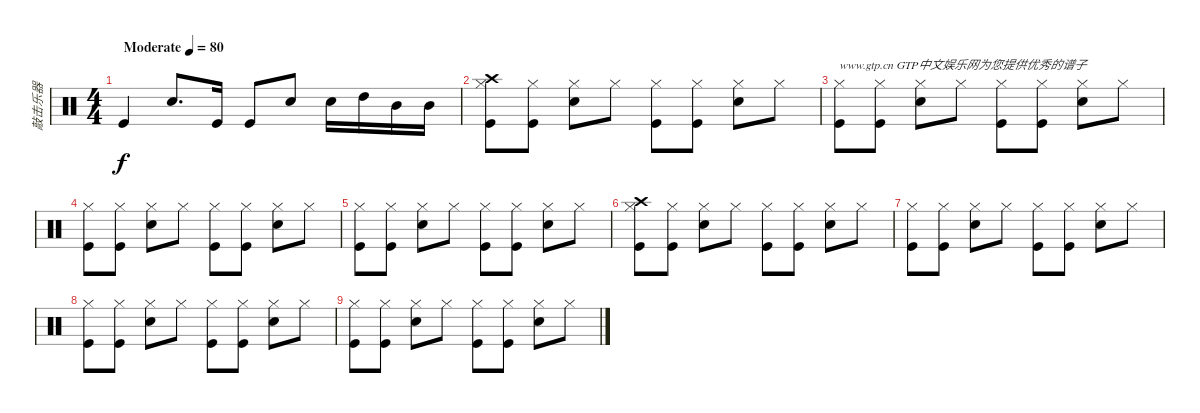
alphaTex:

\track ("敲击乐器" "敲击乐器") {instrument percussion}
\staff {score}
\articulation defaults
\ts (4 4)
\tempo (80 "Moderate")
\clef neutral
\ks c "Kick (hit)".4{dy f} "Snare (hit) 2".8{d} "Kick (hit)".16 "Kick (hit)".8 "Snare (hit) 2".8 "Snare (hit) 2".16 "High Tom (hit)".16 "Mid Tom (hit)".16 "Mid Tom (hit)".16
|
("Crash high (hit)" "Hi-Hat (closed)" "Kick (hit)").8 ("Hi-Hat (closed)" "Kick (hit)").8 ("Hi-Hat (closed)" "Snare (hit) 2").8 "Hi-Hat (closed)".8 ("Hi-Hat (closed)" "Kick (hit)").8 ("Hi-Hat (closed)" "Kick (hit)").8 ("Hi-Hat (closed)" "Snare (hit) 2").8 "Hi-Hat (closed)".8 |
("Hi-Hat (closed)" "Kick (hit)").8{txt "www.gtp.cn GTP中文娱乐网为您提供优秀的谱子"} ("Hi-Hat (closed)" "Kick (hit)").8 ("Hi-Hat (closed)" "Snare (hit) 2").8 "Hi-Hat (closed)".8 ("Hi-Hat (closed)" "Kick (hit)").8 ("Hi-Hat (closed)" "Kick (hit)").8 ("Hi-Hat (closed)" "Snare (hit) 2").8 "Hi-Hat (closed)".8 |
("Hi-Hat (closed)" "Kick (hit)").8 ("Hi-Hat (closed)" "Kick (hit)").8 ("Hi-Hat (closed)" "Snare (hit) 2").8 "Hi-Hat (closed)".8 ("Hi-Hat (closed)" "Kick (hit)").8 ("Hi-Hat (closed)" "Kick (hit)").8 ("Hi-Hat (closed)" "Snare (hit) 2").8 "Hi-Hat (closed)".8 |
("Hi-Hat (closed)" "Kick (hit)").8 ("Hi-Hat (closed)" "Kick (hit)").8 ("Hi-Hat (closed)" "Snare (hit) 2").8 "Hi-Hat (closed)".8 ("Hi-Hat (closed)" "Kick (hit)").8 ("Hi-Hat (closed)" "Kick (hit)").8 ("Hi-Hat (closed)" "Snare (hit) 2").8 "Hi-Hat (closed)".8 |
("Crash high (hit)" "Hi-Hat (closed)" "Kick (hit)").8 ("Hi-Hat (closed)" "Kick (hit)").8 ("Hi-Hat (closed)" "Snare (hit) 2").8 "Hi-Hat (closed)".8 ("Hi-Hat (closed)" "Kick (hit)").8 ("Hi-Hat (closed)" "Kick (hit)").8 ("Hi-Hat (closed)" "Snare (hit) 2").8 "Hi-Hat (closed)".8 |
("Hi-Hat (closed)" "Kick (hit)").8 ("Hi-Hat (closed)" "Kick (hit)").8 ("Hi-Hat (closed)" "Snare (hit) 2").8 "Hi-Hat (closed)".8 ("Hi-Hat (closed)" "Kick (hit)").8 ("Hi-Hat (closed)" "Kick (hit)").8 ("Hi-Hat (closed)" "Snare (hit) 2").8 "Hi-Hat (closed)".8 |
("Hi-Hat (closed)" "Kick (hit)").8 ("Hi-Hat (closed)" "Kick (hit)").8 ("Hi-Hat (closed)" "Snare (hit) 2").8 "Hi-Hat (closed)".8 ("Hi-Hat (closed)" "Kick (hit)").8 ("Hi-Hat (closed)" "Kick (hit)").8 ("Hi-Hat (closed)" "Snare (hit) 2").8 "Hi-Hat (closed)".8 |
("Hi-Hat (closed)" "Kick (hit)").8 ("Hi-Hat (closed)" "Kick (hit)").8 ("Hi-Hat (closed)" "Snare (hit) 2").8 "Hi-Hat (closed)".8 ("Hi-Hat (closed)" "Kick (hit)").8 ("Hi-Hat (closed)" "Kick (hit)").8 ("Hi-Hat (closed)" "Snare (hit) 2").8 "Hi-Hat (closed)".8
